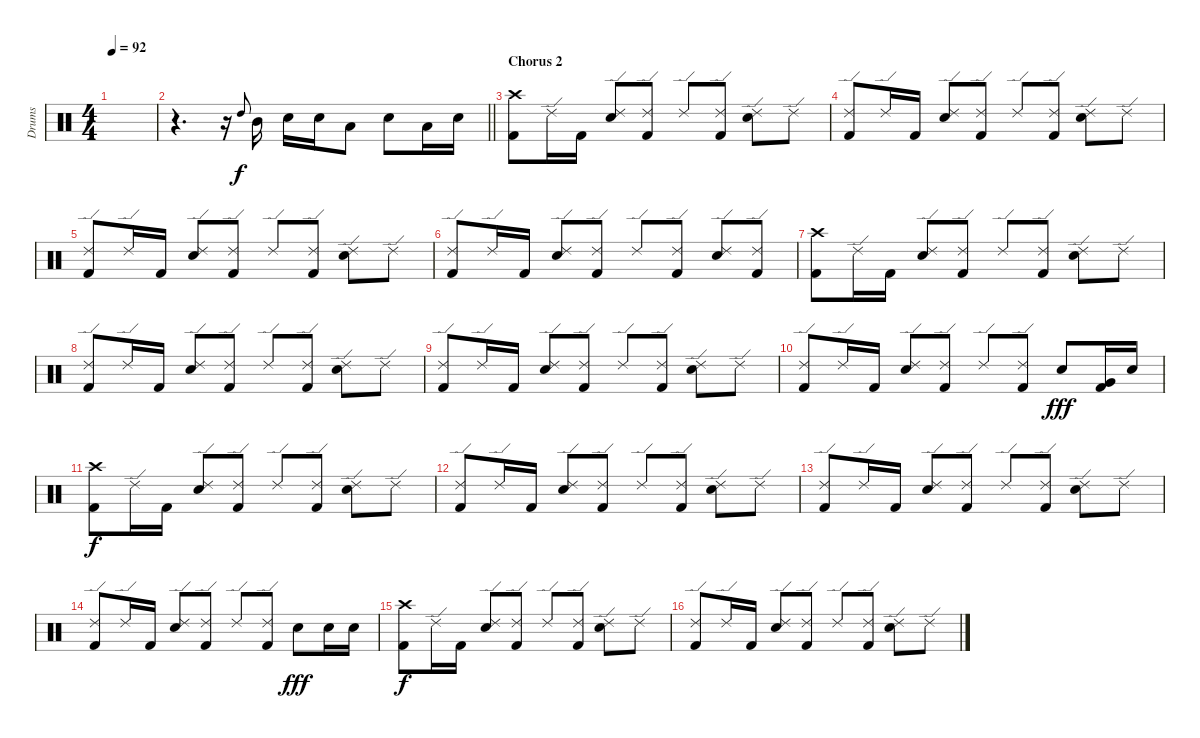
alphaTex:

\track ("Drums" "Drums") {instrument percussion}
\staff {score}
\articulation defaults
\ts (4 4)
\tempo 92
\clef neutral
\ks c
|
\barLineRight lightlight
r.4{d} r.16 "High Tom (hit)".8{gr onbeat} "Mid Tom (hit)".16 "Electric Snare (hit)".16 "Electric Snare (hit)".16 "Low Tom (hit)".8 "Electric Snare (hit)".8 "Low Tom (hit)".16 "Electric Snare (hit)".16 |
\section ("" "Chorus 2")
("Crash high (hit)" "Kick (hit) 2").8 "Ride (edge) 2".16 "Kick (hit) 2".16 ("Ride (edge) 2" "Electric Snare (hit)").8 ("Ride (edge) 2" "Kick (hit) 2").8 "Ride (edge) 2".8 ("Ride (edge) 2" "Kick (hit) 2").8 ("Ride (edge) 2" "Electric Snare (hit)").8 "Ride (edge) 2".8 |
("Ride (edge) 2" "Kick (hit) 2").8 "Ride (edge) 2".16 "Kick (hit) 2".16 ("Ride (edge) 2" "Electric Snare (hit)").8 ("Ride (edge) 2" "Kick (hit) 2").8 "Ride (edge) 2".8 ("Ride (edge) 2" "Kick (hit) 2").8 ("Ride (edge) 2" "Electric Snare (hit)").8 "Ride (edge) 2".8 |
("Ride (edge) 2" "Kick (hit) 2").8 "Ride (edge) 2".16 "Kick (hit) 2".16 ("Ride (edge) 2" "Electric Snare (hit)").8 ("Ride (edge) 2" "Kick (hit) 2").8 "Ride (edge) 2".8 ("Ride (edge) 2" "Kick (hit) 2").8 ("Ride (edge) 2" "Electric Snare (hit)").8 "Ride (edge) 2".8 |
("Ride (edge) 2" "Kick (hit) 2").8 "Ride (edge) 2".16 "Kick (hit) 2".16 ("Ride (edge) 2" "Electric Snare (hit)").8 ("Ride (edge) 2" "Kick (hit) 2").8 "Ride (edge) 2".8 ("Ride (edge) 2" "Kick (hit) 2").8 ("Ride (edge) 2" "Electric Snare (hit)").8 ("Ride (edge) 2" "Kick (hit) 2").8 |
("Crash high (hit)" "Kick (hit) 2").8 "Ride (edge) 2".16 "Kick (hit) 2".16 ("Ride (edge) 2" "Electric Snare (hit)").8 ("Ride (edge) 2" "Kick (hit) 2").8 "Ride (edge) 2".8 ("Ride (edge) 2" "Kick (hit) 2").8 ("Ride (edge) 2" "Electric Snare (hit)").8 "Ride (edge) 2".8 |
("Ride (edge) 2" "Kick (hit) 2").8 "Ride (edge) 2".16 "Kick (hit) 2".16 ("Ride (edge) 2" "Electric Snare (hit)").8 ("Ride (edge) 2" "Kick (hit) 2").8 "Ride (edge) 2".8 ("Ride (edge) 2" "Kick (hit) 2").8 ("Ride (edge) 2" "Electric Snare (hit)").8 "Ride (edge) 2".8 |
("Ride (edge) 2" "Kick (hit) 2").8 "Ride (edge) 2".16 "Kick (hit) 2".16 ("Ride (edge) 2" "Electric Snare (hit)").8 ("Ride (edge) 2" "Kick (hit) 2").8 "Ride (edge) 2".8 ("Ride (edge) 2" "Kick (hit) 2").8 ("Ride (edge) 2" "Electric Snare (hit)").8 "Ride (edge) 2".8 |
("Ride (edge) 2" "Kick (hit) 2").8 "Ride (edge) 2".16 "Kick (hit) 2".16 ("Ride (edge) 2" "Electric Snare (hit)").8 ("Ride (edge) 2" "Kick (hit) 2").8 "Ride (edge) 2".8 ("Ride (edge) 2" "Kick (hit) 2").8 "Electric Snare (hit)".8{dy fff} ("Very Low Tom (hit)" "Kick (hit) 2").16 "Electric Snare (hit)".16 |
("Crash high (hit)" "Kick (hit) 2").8{dy f} "Ride (edge) 2".16 "Kick (hit) 2".16 ("Ride (edge) 2" "Electric Snare (hit)").8 ("Ride (edge) 2" "Kick (hit) 2").8 "Ride (edge) 2".8 ("Ride (edge) 2" "Kick (hit) 2").8 ("Ride (edge) 2" "Electric Snare (hit)").8 "Ride (edge) 2".8 |
("Ride (edge) 2" "Kick (hit) 2").8 "Ride (edge) 2".16 "Kick (hit) 2".16 ("Ride (edge) 2" "Electric Snare (hit)").8 ("Ride (edge) 2" "Kick (hit) 2").8 "Ride (edge) 2".8 ("Ride (edge) 2" "Kick (hit) 2").8 ("Ride (edge) 2" "Electric Snare (hit)").8 "Ride (edge) 2".8 |
("Ride (edge) 2" "Kick (hit) 2").8 "Ride (edge) 2".16 "Kick (hit) 2".16 ("Ride (edge) 2" "Electric Snare (hit)").8 ("Ride (edge) 2" "Kick (hit) 2").8 "Ride (edge) 2".8 ("Ride (edge) 2" "Kick (hit) 2").8 ("Ride (edge) 2" "Electric Snare (hit)").8 "Ride (edge) 2".8 |
("Ride (edge) 2" "Kick (hit) 2").8 "Ride (edge) 2".16 "Kick (hit) 2".16 ("Ride (edge) 2" "Electric Snare (hit)").8 ("Ride (edge) 2" "Kick (hit) 2").8 "Ride (edge) 2".8 ("Ride (edge) 2" "Kick (hit) 2").8 "Electric Snare (hit)".8{dy fff} "Electric Snare (hit)".16 "Electric Snare (hit)".16 |
("Crash high (hit)" "Kick (hit) 2").8{dy f} "Ride (edge) 2".16 "Kick (hit) 2".16 ("Ride (edge) 2" "Electric Snare (hit)").8 ("Ride (edge) 2" "Kick (hit) 2").8 "Ride (edge) 2".8 ("Ride (edge) 2" "Kick (hit) 2").8 ("Ride (edge) 2" "Electric Snare (hit)").8 "Ride (edge) 2".8 |
("Ride (edge) 2" "Kick (hit) 2").8 "Ride (edge) 2".16 "Kick (hit) 2".16 ("Ride (edge) 2" "Electric Snare (hit)").8 ("Ride (edge) 2" "Kick (hit) 2").8 "Ride (edge) 2".8 ("Ride (edge) 2" "Kick (hit) 2").8 ("Ride (edge) 2" "Electric Snare (hit)").8 "Ride (edge) 2".8
